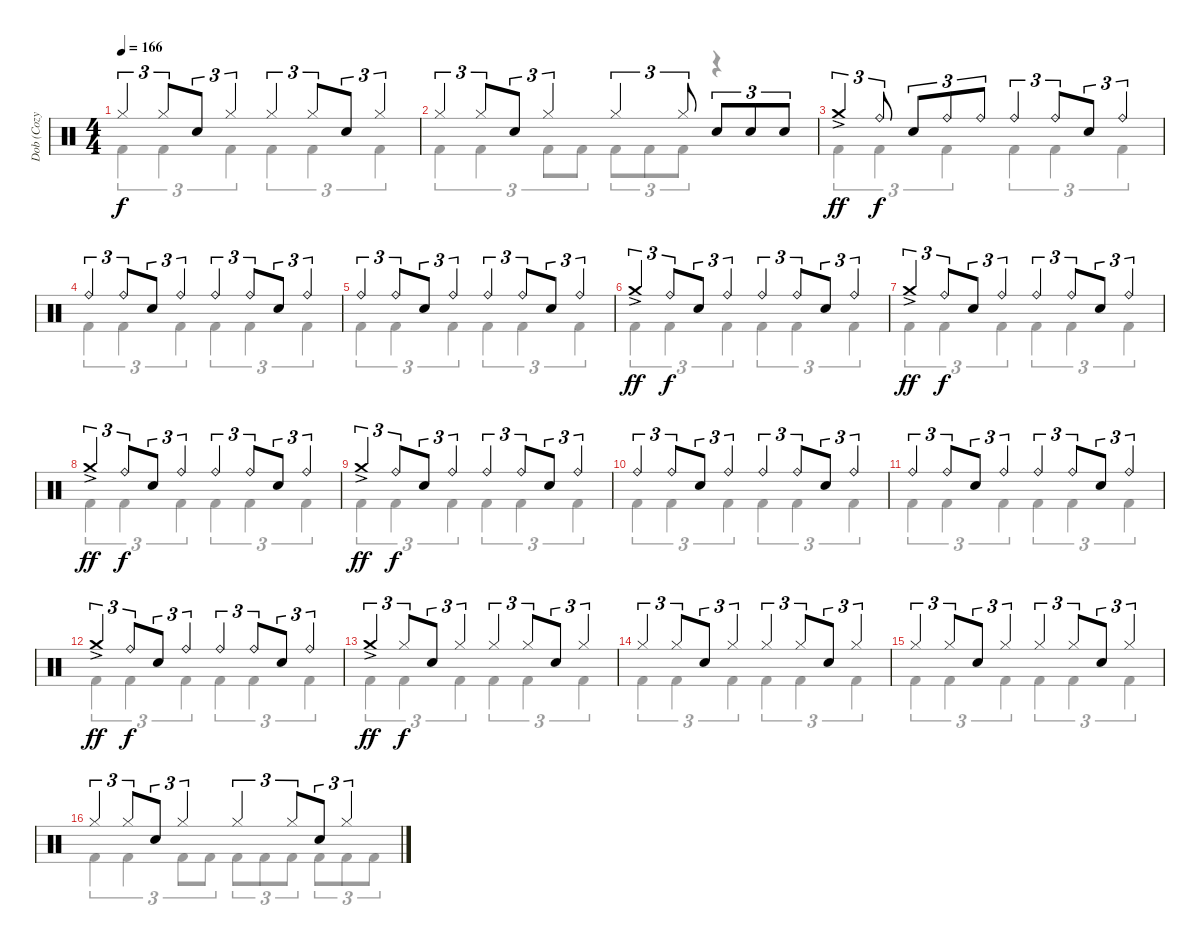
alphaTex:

\track ("Dob (Cozy Powell)" "Dob (Cozy ") {instrument percussion}
\staff {score}
\articulation defaults
\voice
\ts (4 4)
\tempo 166
\clef neutral
\ks c "Hi-Hat (closed)".4{tu (3 2) dy f} "Hi-Hat (closed)".8{tu (3 2) beam merge} "Electric Snare (hit)".8{tu (3 2)} "Hi-Hat (closed)".4{tu (3 2)} "Hi-Hat (closed)".4{tu (3 2)} "Hi-Hat (closed)".8{tu (3 2) beam merge} "Electric Snare (hit)".8{tu (3 2)} "Hi-Hat (closed)".4{tu (3 2)}
|
"Hi-Hat (closed)".4{tu (3 2)} "Hi-Hat (closed)".8{tu (3 2) beam merge} "Electric Snare (hit)".8{tu (3 2)} "Hi-Hat (closed)".4{tu (3 2)} "Hi-Hat (closed)".4{tu (3 2)} "Hi-Hat (closed)".8{tu (3 2)} "Electric Snare (hit)".8{tu (3 2)} "Electric Snare (hit)".8{tu (3 2)} "Electric Snare (hit)".8{tu (3 2)} |
"Crash medium (hit)"{ac}.4{tu (3 2) dy ff} "Ride (bell)".8{tu (3 2) dy f} "Electric Snare (hit)".8{tu (3 2)} "Ride (bell)".8{tu (3 2)} "Ride (bell)".8{tu (3 2)} "Ride (bell)".4{tu (3 2)} "Ride (bell)".8{tu (3 2) beam merge} "Electric Snare (hit)".8{tu (3 2)} "Ride (bell)".4{tu (3 2)} |
"Ride (bell)".4{tu (3 2)} "Ride (bell)".8{tu (3 2) beam merge} "Electric Snare (hit)".8{tu (3 2)} "Ride (bell)".4{tu (3 2)} "Ride (bell)".4{tu (3 2)} "Ride (bell)".8{tu (3 2) beam merge} "Electric Snare (hit)".8{tu (3 2)} "Ride (bell)".4{tu (3 2)} |
"Ride (bell)".4{tu (3 2)} "Ride (bell)".8{tu (3 2) beam merge} "Electric Snare (hit)".8{tu (3 2)} "Ride (bell)".4{tu (3 2)} "Ride (bell)".4{tu (3 2)} "Ride (bell)".8{tu (3 2) beam merge} "Electric Snare (hit)".8{tu (3 2)} "Ride (bell)".4{tu (3 2)} |
"Crash medium (hit)"{ac}.4{tu (3 2) dy ff} "Ride (bell)".8{tu (3 2) dy f beam merge} "Electric Snare (hit)".8{tu (3 2)} "Ride (bell)".4{tu (3 2)} "Ride (bell)".4{tu (3 2)} "Ride (bell)".8{tu (3 2) beam merge} "Electric Snare (hit)".8{tu (3 2)} "Ride (bell)".4{tu (3 2)} |
"Crash medium (hit)"{ac}.4{tu (3 2) dy ff} "Ride (bell)".8{tu (3 2) dy f beam merge} "Electric Snare (hit)".8{tu (3 2)} "Ride (bell)".4{tu (3 2)} "Ride (bell)".4{tu (3 2)} "Ride (bell)".8{tu (3 2) beam merge} "Electric Snare (hit)".8{tu (3 2)} "Ride (bell)".4{tu (3 2)} |
"Crash medium (hit)"{ac}.4{tu (3 2) dy ff} "Ride (bell)".8{tu (3 2) dy f beam merge} "Electric Snare (hit)".8{tu (3 2)} "Ride (bell)".4{tu (3 2)} "Ride (bell)".4{tu (3 2)} "Ride (bell)".8{tu (3 2) beam merge} "Electric Snare (hit)".8{tu (3 2)} "Ride (bell)".4{tu (3 2)} |
"Crash medium (hit)"{ac}.4{tu (3 2) dy ff} "Ride (bell)".8{tu (3 2) dy f beam merge} "Electric Snare (hit)".8{tu (3 2)} "Ride (bell)".4{tu (3 2)} "Ride (bell)".4{tu (3 2)} "Ride (bell)".8{tu (3 2) beam merge} "Electric Snare (hit)".8{tu (3 2)} "Ride (bell)".4{tu (3 2)} |
"Ride (bell)".4{tu (3 2)} "Ride (bell)".8{tu (3 2) beam merge} "Electric Snare (hit)".8{tu (3 2)} "Ride (bell)".4{tu (3 2)} "Ride (bell)".4{tu (3 2)} "Ride (bell)".8{tu (3 2) beam merge} "Electric Snare (hit)".8{tu (3 2)} "Ride (bell)".4{tu (3 2)} |
"Ride (bell)".4{tu (3 2)} "Ride (bell)".8{tu (3 2) beam merge} "Electric Snare (hit)".8{tu (3 2)} "Ride (bell)".4{tu (3 2)} "Ride (bell)".4{tu (3 2)} "Ride (bell)".8{tu (3 2) beam merge} "Electric Snare (hit)".8{tu (3 2)} "Ride (bell)".4{tu (3 2)} |
"Crash medium (hit)"{ac}.4{tu (3 2) dy ff} "Ride (bell)".8{tu (3 2) dy f beam merge} "Electric Snare (hit)".8{tu (3 2)} "Ride (bell)".4{tu (3 2)} "Ride (bell)".4{tu (3 2)} "Ride (bell)".8{tu (3 2) beam merge} "Electric Snare (hit)".8{tu (3 2)} "Ride (bell)".4{tu (3 2)} |
"Crash medium (hit)"{ac}.4{tu (3 2) dy ff} "Hi-Hat (closed)".8{tu (3 2) dy f beam merge} "Electric Snare (hit)".8{tu (3 2)} "Hi-Hat (closed)".4{tu (3 2)} "Hi-Hat (closed)".4{tu (3 2)} "Hi-Hat (closed)".8{tu (3 2) beam merge} "Electric Snare (hit)".8{tu (3 2)} "Hi-Hat (closed)".4{tu (3 2)} |
"Hi-Hat (closed)".4{tu (3 2)} "Hi-Hat (closed)".8{tu (3 2) beam merge} "Electric Snare (hit)".8{tu (3 2)} "Hi-Hat (closed)".4{tu (3 2)} "Hi-Hat (closed)".4{tu (3 2)} "Hi-Hat (closed)".8{tu (3 2) beam merge} "Electric Snare (hit)".8{tu (3 2)} "Hi-Hat (closed)".4{tu (3 2)} |
"Hi-Hat (closed)".4{tu (3 2)} "Hi-Hat (closed)".8{tu (3 2) beam merge} "Electric Snare (hit)".8{tu (3 2)} "Hi-Hat (closed)".4{tu (3 2)} "Hi-Hat (closed)".4{tu (3 2)} "Hi-Hat (closed)".8{tu (3 2) beam merge} "Electric Snare (hit)".8{tu (3 2)} "Hi-Hat (closed)".4{tu (3 2)} |
"Hi-Hat (closed)".4{tu (3 2)} "Hi-Hat (closed)".8{tu (3 2) beam merge} "Electric Snare (hit)".8{tu (3 2)} "Hi-Hat (closed)".4{tu (3 2)} "Hi-Hat (closed)".4{tu (3 2)} "Hi-Hat (closed)".8{tu (3 2) beam merge} "Electric Snare (hit)".8{tu (3 2)} "Hi-Hat (closed)".4{tu (3 2)}
\voice
\clef neutral
\ottava regular
\simile none
\ks c "Kick (hit) 2".4{tu (3 2) dy f} "Kick (hit) 2".4{tu (3 2)} "Kick (hit) 2".4{tu (3 2)} "Kick (hit) 2".4{tu (3 2)} "Kick (hit) 2".4{tu (3 2)} "Kick (hit) 2".4{tu (3 2)}
|
"Kick (hit) 2".4{tu (3 2)} "Kick (hit) 2".4{tu (3 2)} "Kick (hit) 2".8{tu (3 2)} "Kick (hit) 2".8{tu (3 2)} "Kick (hit) 2".8{tu (3 2)} "Kick (hit) 2".8{tu (3 2)} "Kick (hit) 2".8{tu (3 2)} r.4 |
"Kick (hit) 2".4{tu (3 2)} "Kick (hit) 2".4{tu (3 2)} "Kick (hit) 2".4{tu (3 2)} "Kick (hit) 2".4{tu (3 2)} "Kick (hit) 2".4{tu (3 2)} "Kick (hit) 2".4{tu (3 2)} |
"Kick (hit) 2".4{tu (3 2)} "Kick (hit) 2".4{tu (3 2)} "Kick (hit) 2".4{tu (3 2)} "Kick (hit) 2".4{tu (3 2)} "Kick (hit) 2".4{tu (3 2)} "Kick (hit) 2".4{tu (3 2)} |
"Kick (hit) 2".4{tu (3 2)} "Kick (hit) 2".4{tu (3 2)} "Kick (hit) 2".4{tu (3 2)} "Kick (hit) 2".4{tu (3 2)} "Kick (hit) 2".4{tu (3 2)} "Kick (hit) 2".4{tu (3 2)} |
"Kick (hit) 2".4{tu (3 2)} "Kick (hit) 2".4{tu (3 2)} "Kick (hit) 2".4{tu (3 2)} "Kick (hit) 2".4{tu (3 2)} "Kick (hit) 2".4{tu (3 2)} "Kick (hit) 2".4{tu (3 2)} |
"Kick (hit) 2".4{tu (3 2)} "Kick (hit) 2".4{tu (3 2)} "Kick (hit) 2".4{tu (3 2)} "Kick (hit) 2".4{tu (3 2)} "Kick (hit) 2".4{tu (3 2)} "Kick (hit) 2".4{tu (3 2)} |
"Kick (hit) 2".4{tu (3 2)} "Kick (hit) 2".4{tu (3 2)} "Kick (hit) 2".4{tu (3 2)} "Kick (hit) 2".4{tu (3 2)} "Kick (hit) 2".4{tu (3 2)} "Kick (hit) 2".4{tu (3 2)} |
"Kick (hit) 2".4{tu (3 2)} "Kick (hit) 2".4{tu (3 2)} "Kick (hit) 2".4{tu (3 2)} "Kick (hit) 2".4{tu (3 2)} "Kick (hit) 2".4{tu (3 2)} "Kick (hit) 2".4{tu (3 2)} |
"Kick (hit) 2".4{tu (3 2)} "Kick (hit) 2".4{tu (3 2)} "Kick (hit) 2".4{tu (3 2)} "Kick (hit) 2".4{tu (3 2)} "Kick (hit) 2".4{tu (3 2)} "Kick (hit) 2".4{tu (3 2)} |
"Kick (hit) 2".4{tu (3 2)} "Kick (hit) 2".4{tu (3 2)} "Kick (hit) 2".4{tu (3 2)} "Kick (hit) 2".4{tu (3 2)} "Kick (hit) 2".4{tu (3 2)} "Kick (hit) 2".4{tu (3 2)} |
"Kick (hit) 2".4{tu (3 2)} "Kick (hit) 2".4{tu (3 2)} "Kick (hit) 2".4{tu (3 2)} "Kick (hit) 2".4{tu (3 2)} "Kick (hit) 2".4{tu (3 2)} "Kick (hit) 2".4{tu (3 2)} |
"Kick (hit) 2".4{tu (3 2)} "Kick (hit) 2".4{tu (3 2)} "Kick (hit) 2".4{tu (3 2)} "Kick (hit) 2".4{tu (3 2)} "Kick (hit) 2".4{tu (3 2)} "Kick (hit) 2".4{tu (3 2)} |
"Kick (hit) 2".4{tu (3 2)} "Kick (hit) 2".4{tu (3 2)} "Kick (hit) 2".4{tu (3 2)} "Kick (hit) 2".4{tu (3 2)} "Kick (hit) 2".4{tu (3 2)} "Kick (hit) 2".4{tu (3 2)} |
"Kick (hit) 2".4{tu (3 2)} "Kick (hit) 2".4{tu (3 2)} "Kick (hit) 2".4{tu (3 2)} "Kick (hit) 2".4{tu (3 2)} "Kick (hit) 2".4{tu (3 2)} "Kick (hit) 2".4{tu (3 2)} |
"Kick (hit) 2".4{tu (3 2)} "Kick (hit) 2".4{tu (3 2)} "Kick (hit) 2".8{tu (3 2)} "Kick (hit) 2".8{tu (3 2)} "Kick (hit) 2".8{tu (3 2)} "Kick (hit) 2".8{tu (3 2)} "Kick (hit) 2".8{tu (3 2)} "Kick (hit) 2".8{tu (3 2)} "Kick (hit) 2".8{tu (3 2)} "Kick (hit) 2".8{tu (3 2)}
